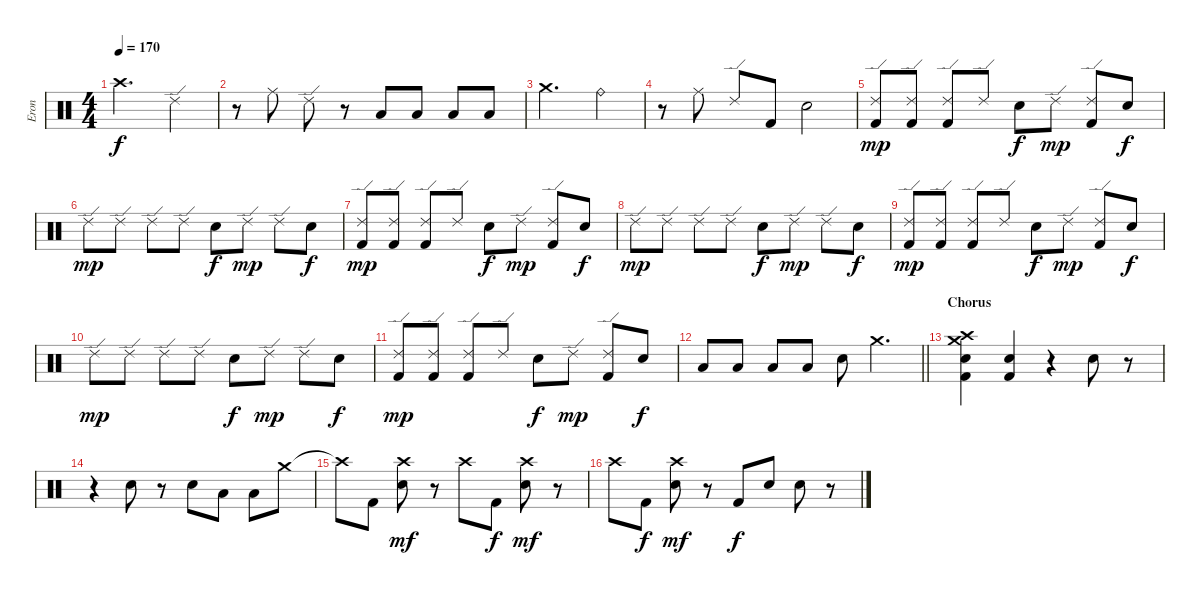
\track ("Eron" "Eron") {instrument percussion}
\staff {score}
\articulation defaults
\ts (4 4)
\tempo 170
\clef neutral
\ks c "Crash high (hit)".2{d dy f} "Ride (edge) 2".4
|
r.8 "Ride (middle)".8 "Ride (edge) 2".8 r.8 "Low Tom (hit)".8 "Low Tom (hit)".8 "Low Floor Tom (hit)".8 "Low Floor Tom (hit)".8 |
"Crash medium (hit)".2{d} "Ride (bell)".4 |
r.8 "Ride (middle)".8 "Ride (edge) 2".8 "Kick (hit) 2".8 "Snare (hit) 2".2 |
("Ride (edge) 2" "Kick (hit) 2").8{dy mp} ("Ride (edge) 2" "Kick (hit) 2").8 ("Ride (edge) 2" "Kick (hit) 2").8 "Ride (edge) 2".8 "Snare (hit) 2".8{dy f} "Ride (edge) 2".8{dy mp} ("Ride (edge) 2" "Kick (hit) 2").8 "Snare (hit) 2".8{dy f} |
"Ride (edge) 2".8{dy mp} "Ride (edge) 2".8 "Ride (edge) 2".8 "Ride (edge) 2".8 "Snare (hit) 2".8{dy f} "Ride (edge) 2".8{dy mp} "Ride (edge) 2".8 "Snare (hit) 2".8{dy f} |
("Ride (edge) 2" "Kick (hit) 2").8{dy mp} ("Ride (edge) 2" "Kick (hit) 2").8 ("Ride (edge) 2" "Kick (hit) 2").8 "Ride (edge) 2".8 "Snare (hit) 2".8{dy f} "Ride (edge) 2".8{dy mp} ("Ride (edge) 2" "Kick (hit) 2").8 "Snare (hit) 2".8{dy f} |
"Ride (edge) 2".8{dy mp} "Ride (edge) 2".8 "Ride (edge) 2".8 "Ride (edge) 2".8 "Snare (hit) 2".8{dy f} "Ride (edge) 2".8{dy mp} "Ride (edge) 2".8 "Snare (hit) 2".8{dy f} |
("Ride (edge) 2" "Kick (hit) 2").8{dy mp} ("Ride (edge) 2" "Kick (hit) 2").8 ("Ride (edge) 2" "Kick (hit) 2").8 "Ride (edge) 2".8 "Snare (hit) 2".8{dy f} "Ride (edge) 2".8{dy mp} ("Ride (edge) 2" "Kick (hit) 2").8 "Snare (hit) 2".8{dy f} |
"Ride (edge) 2".8{dy mp} "Ride (edge) 2".8 "Ride (edge) 2".8 "Ride (edge) 2".8 "Snare (hit) 2".8{dy f} "Ride (edge) 2".8{dy mp} "Ride (edge) 2".8 "Snare (hit) 2".8{dy f} |
("Ride (edge) 2" "Kick (hit) 2").8{dy mp} ("Ride (edge) 2" "Kick (hit) 2").8 ("Ride (edge) 2" "Kick (hit) 2").8 "Ride (edge) 2".8 "Snare (hit) 2".8{dy f} "Ride (edge) 2".8{dy mp} ("Ride (edge) 2" "Kick (hit) 2").8 "Snare (hit) 2".8{dy f} |
\barLineRight lightlight "Low Tom (hit)".8 "Low Tom (hit)".8 "Low Floor Tom (hit)".8 "Low Floor Tom (hit)".8 "Snare (hit) 2".8 "Crash medium (hit)".4{d}
|
\section ("" "Chorus")
("Crash high (hit)" "Crash medium (hit)" "Snare (hit) 2" "Kick (hit) 2").4 ("Snare (hit) 2" "Kick (hit) 2").4 r.4 "Snare (hit) 2".8 r.8 |
r.4 "Snare (hit) 2".8 r.8 "Snare (hit) 2".8 "Low Tom (hit)".8 "Low Floor Tom (hit)".8 "Crash medium (hit)".8 |
"Crash high (hit)"{t}.8 "Kick (hit) 2".8 ("Crash high (hit)" "Snare (hit) 2").8{dy mf} r.8 "Crash high (hit)".8 "Kick (hit) 2".8{dy f} ("Crash high (hit)" "Snare (hit) 2").8{dy mf} r.8 |
"Crash high (hit)".8 "Kick (hit) 2".8{dy f} ("Crash high (hit)" "Snare (hit) 2").8{dy mf} r.8 "Kick (hit) 2".8{dy f} "Snare (hit) 2".8 "Snare (hit) 2".8 r.8
